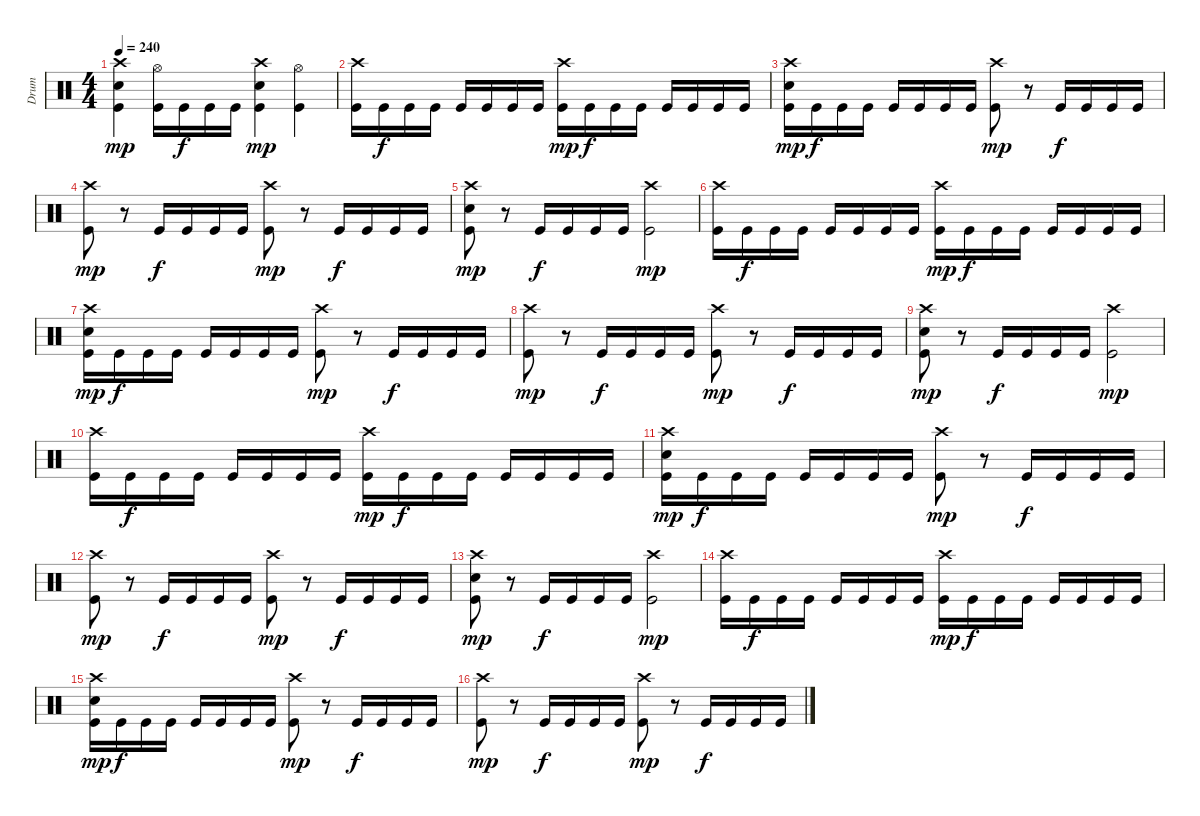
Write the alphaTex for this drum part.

\track ("Drum" "Drum") {instrument percussion}
\staff {score}
\articulation defaults
\ts (4 4)
\tempo 240
\clef neutral
\ks c
("Crash high (hit)" "Electric Snare (hit)" "Kick (hit)").4{dy mp} ("Hi-Hat (open)" "Kick (hit)").16 "Kick (hit)".16{dy f} "Kick (hit)".16 "Kick (hit)".16 ("Crash high (hit)" "Electric Snare (hit)" "Kick (hit)").4{dy mp} ("Hi-Hat (open)" "Kick (hit)").4 |
("Crash high (hit)" "Kick (hit)").16 "Kick (hit)".16{dy f} "Kick (hit)".16 "Kick (hit)".16 "Kick (hit)".16 "Kick (hit)".16 "Kick (hit)".16 "Kick (hit)".16 ("Crash high (hit)" "Kick (hit)").16{dy mp} "Kick (hit)".16{dy f} "Kick (hit)".16 "Kick (hit)".16 "Kick (hit)".16 "Kick (hit)".16 "Kick (hit)".16 "Kick (hit)".16 |
("Crash high (hit)" "Electric Snare (hit)" "Kick (hit)").16{dy mp} "Kick (hit)".16{dy f} "Kick (hit)".16 "Kick (hit)".16 "Kick (hit)".16 "Kick (hit)".16 "Kick (hit)".16 "Kick (hit)".16 ("Crash high (hit)" "Kick (hit)").8{dy mp} r.8 "Kick (hit)".16{dy f} "Kick (hit)".16 "Kick (hit)".16 "Kick (hit)".16 |
("Crash high (hit)" "Kick (hit)").8{dy mp} r.8 "Kick (hit)".16{dy f} "Kick (hit)".16 "Kick (hit)".16 "Kick (hit)".16 ("Crash high (hit)" "Kick (hit)").8{dy mp} r.8 "Kick (hit)".16{dy f} "Kick (hit)".16 "Kick (hit)".16 "Kick (hit)".16 |
("Crash high (hit)" "Electric Snare (hit)" "Kick (hit)").8{dy mp} r.8 "Kick (hit)".16{dy f} "Kick (hit)".16 "Kick (hit)".16 "Kick (hit)".16 ("Crash high (hit)" "Kick (hit)").2{dy mp} |
("Crash high (hit)" "Kick (hit)").16 "Kick (hit)".16{dy f} "Kick (hit)".16 "Kick (hit)".16 "Kick (hit)".16 "Kick (hit)".16 "Kick (hit)".16 "Kick (hit)".16 ("Crash high (hit)" "Kick (hit)").16{dy mp} "Kick (hit)".16{dy f} "Kick (hit)".16 "Kick (hit)".16 "Kick (hit)".16 "Kick (hit)".16 "Kick (hit)".16 "Kick (hit)".16 |
("Crash high (hit)" "Electric Snare (hit)" "Kick (hit)").16{dy mp} "Kick (hit)".16{dy f} "Kick (hit)".16 "Kick (hit)".16 "Kick (hit)".16 "Kick (hit)".16 "Kick (hit)".16 "Kick (hit)".16 ("Crash high (hit)" "Kick (hit)").8{dy mp} r.8 "Kick (hit)".16{dy f} "Kick (hit)".16 "Kick (hit)".16 "Kick (hit)".16 |
("Crash high (hit)" "Kick (hit)").8{dy mp} r.8 "Kick (hit)".16{dy f} "Kick (hit)".16 "Kick (hit)".16 "Kick (hit)".16 ("Crash high (hit)" "Kick (hit)").8{dy mp} r.8 "Kick (hit)".16{dy f} "Kick (hit)".16 "Kick (hit)".16 "Kick (hit)".16 |
("Crash high (hit)" "Electric Snare (hit)" "Kick (hit)").8{dy mp} r.8 "Kick (hit)".16{dy f} "Kick (hit)".16 "Kick (hit)".16 "Kick (hit)".16 ("Crash high (hit)" "Kick (hit)").2{dy mp} |
("Crash high (hit)" "Kick (hit)").16 "Kick (hit)".16{dy f} "Kick (hit)".16 "Kick (hit)".16 "Kick (hit)".16 "Kick (hit)".16 "Kick (hit)".16 "Kick (hit)".16 ("Crash high (hit)" "Kick (hit)").16{dy mp} "Kick (hit)".16{dy f} "Kick (hit)".16 "Kick (hit)".16 "Kick (hit)".16 "Kick (hit)".16 "Kick (hit)".16 "Kick (hit)".16 |
("Crash high (hit)" "Electric Snare (hit)" "Kick (hit)").16{dy mp} "Kick (hit)".16{dy f} "Kick (hit)".16 "Kick (hit)".16 "Kick (hit)".16 "Kick (hit)".16 "Kick (hit)".16 "Kick (hit)".16 ("Crash high (hit)" "Kick (hit)").8{dy mp} r.8 "Kick (hit)".16{dy f} "Kick (hit)".16 "Kick (hit)".16 "Kick (hit)".16 |
("Crash high (hit)" "Kick (hit)").8{dy mp} r.8 "Kick (hit)".16{dy f} "Kick (hit)".16 "Kick (hit)".16 "Kick (hit)".16 ("Crash high (hit)" "Kick (hit)").8{dy mp} r.8 "Kick (hit)".16{dy f} "Kick (hit)".16 "Kick (hit)".16 "Kick (hit)".16 |
("Crash high (hit)" "Electric Snare (hit)" "Kick (hit)").8{dy mp} r.8 "Kick (hit)".16{dy f} "Kick (hit)".16 "Kick (hit)".16 "Kick (hit)".16 ("Crash high (hit)" "Kick (hit)").2{dy mp} |
("Crash high (hit)" "Kick (hit)").16 "Kick (hit)".16{dy f} "Kick (hit)".16 "Kick (hit)".16 "Kick (hit)".16 "Kick (hit)".16 "Kick (hit)".16 "Kick (hit)".16 ("Crash high (hit)" "Kick (hit)").16{dy mp} "Kick (hit)".16{dy f} "Kick (hit)".16 "Kick (hit)".16 "Kick (hit)".16 "Kick (hit)".16 "Kick (hit)".16 "Kick (hit)".16 |
("Crash high (hit)" "Electric Snare (hit)" "Kick (hit)").16{dy mp} "Kick (hit)".16{dy f} "Kick (hit)".16 "Kick (hit)".16 "Kick (hit)".16 "Kick (hit)".16 "Kick (hit)".16 "Kick (hit)".16 ("Crash high (hit)" "Kick (hit)").8{dy mp} r.8 "Kick (hit)".16{dy f} "Kick (hit)".16 "Kick (hit)".16 "Kick (hit)".16 |
("Crash high (hit)" "Kick (hit)").8{dy mp} r.8 "Kick (hit)".16{dy f} "Kick (hit)".16 "Kick (hit)".16 "Kick (hit)".16 ("Crash high (hit)" "Kick (hit)").8{dy mp} r.8 "Kick (hit)".16{dy f} "Kick (hit)".16 "Kick (hit)".16 "Kick (hit)".16
